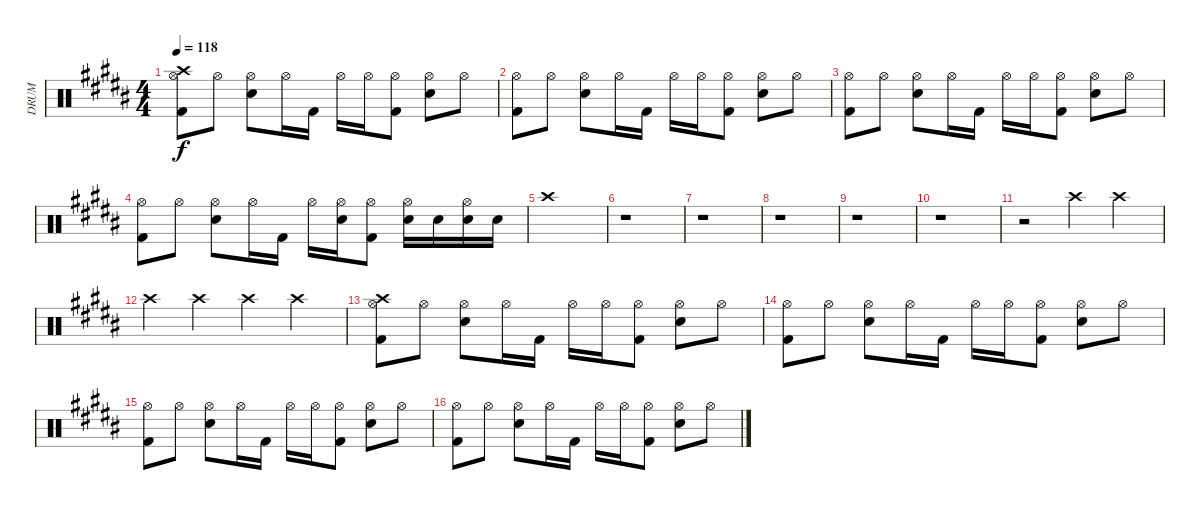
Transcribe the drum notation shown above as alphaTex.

\track ("DRUM" "DRUM") {instrument percussion}
\staff {score}
\articulation defaults
\ts (4 4)
\tempo 118
\clef neutral
\ks b
("Crash high (hit)" "Hi-Hat (open)" "Kick (hit) 2").8{dy f} "Hi-Hat (open)".8 ("Hi-Hat (open)" "Electric Snare (hit)").8 "Hi-Hat (open)".16 "Kick (hit) 2".16 "Hi-Hat (open)".16 "Hi-Hat (open)".16 ("Hi-Hat (open)" "Kick (hit) 2").8 ("Hi-Hat (open)" "Electric Snare (hit)").8 "Hi-Hat (open)".8 |
("Hi-Hat (open)" "Kick (hit) 2").8 "Hi-Hat (open)".8 ("Hi-Hat (open)" "Electric Snare (hit)").8 "Hi-Hat (open)".16 "Kick (hit) 2".16 "Hi-Hat (open)".16 "Hi-Hat (open)".16 ("Hi-Hat (open)" "Kick (hit) 2").8 ("Hi-Hat (open)" "Electric Snare (hit)").8 "Hi-Hat (open)".8 |
("Hi-Hat (open)" "Kick (hit) 2").8 "Hi-Hat (open)".8 ("Hi-Hat (open)" "Electric Snare (hit)").8 "Hi-Hat (open)".16 "Kick (hit) 2".16 "Hi-Hat (open)".16 "Hi-Hat (open)".16 ("Hi-Hat (open)" "Kick (hit) 2").8 ("Hi-Hat (open)" "Electric Snare (hit)").8 "Hi-Hat (open)".8 |
("Hi-Hat (open)" "Kick (hit) 2").8 "Hi-Hat (open)".8 ("Hi-Hat (open)" "Electric Snare (hit)").8 "Hi-Hat (open)".16 "Kick (hit) 2".16 "Hi-Hat (open)".16 ("Hi-Hat (open)" "Electric Snare (hit)").16 ("Hi-Hat (open)" "Kick (hit) 2").8 ("Hi-Hat (open)" "Electric Snare (hit)").16 "Electric Snare (hit)".16 ("Hi-Hat (open)" "Electric Snare (hit)").16 "Electric Snare (hit)".16 |
"Crash high (hit)".1 |
r.1 |
r.1 |
r.1 |
r.1 |
r.1 |
r.2 "Crash high (hit)".4{volume 5} "Crash high (hit)".4{volume 7} |
"Crash high (hit)".4{volume 9} "Crash high (hit)".4{volume 11} "Crash high (hit)".4 "Crash high (hit)".4 |
("Crash high (hit)" "Hi-Hat (open)" "Kick (hit) 2").8 "Hi-Hat (open)".8 ("Hi-Hat (open)" "Electric Snare (hit)").8 "Hi-Hat (open)".16 "Kick (hit) 2".16 "Hi-Hat (open)".16 "Hi-Hat (open)".16 ("Hi-Hat (open)" "Kick (hit) 2").8 ("Hi-Hat (open)" "Electric Snare (hit)").8 "Hi-Hat (open)".8 |
("Hi-Hat (open)" "Kick (hit) 2").8 "Hi-Hat (open)".8 ("Hi-Hat (open)" "Electric Snare (hit)").8 "Hi-Hat (open)".16 "Kick (hit) 2".16 "Hi-Hat (open)".16 "Hi-Hat (open)".16 ("Hi-Hat (open)" "Kick (hit) 2").8 ("Hi-Hat (open)" "Electric Snare (hit)").8 "Hi-Hat (open)".8 |
("Hi-Hat (open)" "Kick (hit) 2").8 "Hi-Hat (open)".8 ("Hi-Hat (open)" "Electric Snare (hit)").8 "Hi-Hat (open)".16 "Kick (hit) 2".16 "Hi-Hat (open)".16 "Hi-Hat (open)".16 ("Hi-Hat (open)" "Kick (hit) 2").8 ("Hi-Hat (open)" "Electric Snare (hit)").8 "Hi-Hat (open)".8 |
("Hi-Hat (open)" "Kick (hit) 2").8 "Hi-Hat (open)".8 ("Hi-Hat (open)" "Electric Snare (hit)").8 "Hi-Hat (open)".16 "Kick (hit) 2".16 "Hi-Hat (open)".16 "Hi-Hat (open)".16 ("Hi-Hat (open)" "Kick (hit) 2").8 ("Hi-Hat (open)" "Electric Snare (hit)").8 "Hi-Hat (open)".8
